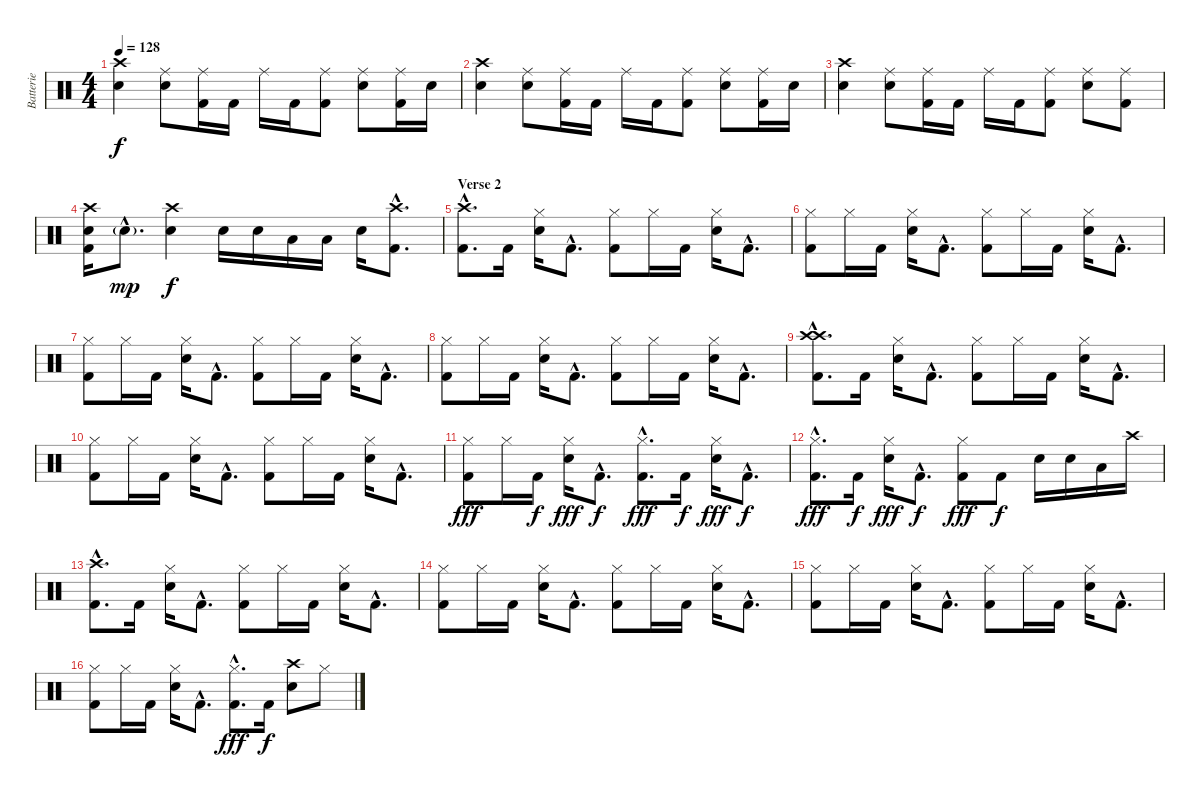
\track ("Batterie" "Batterie") {instrument percussion}
\staff {score}
\articulation defaults
\ts (4 4)
\tempo 128
\clef neutral
\ks c
("Crash high (hit)" "Electric Snare (hit)").4{dy f} ("Ride (middle)" "Electric Snare (hit)").8 ("Ride (middle)" "Kick (hit) 2").16 "Kick (hit) 2".16 "Ride (middle)".16 "Kick (hit) 2".16 ("Ride (middle)" "Kick (hit) 2").8 ("Ride (middle)" "Electric Snare (hit)").8 ("Ride (middle)" "Kick (hit) 2").16 "Electric Snare (hit)".16 |
("Crash high (hit)" "Electric Snare (hit)").4 ("Ride (middle)" "Electric Snare (hit)").8 ("Ride (middle)" "Kick (hit) 2").16 "Kick (hit) 2".16 "Ride (middle)".16 "Kick (hit) 2".16 ("Ride (middle)" "Kick (hit) 2").8 ("Ride (middle)" "Electric Snare (hit)").8 ("Ride (middle)" "Kick (hit) 2").16 "Electric Snare (hit)".16 |
("Crash high (hit)" "Electric Snare (hit)").4 ("Ride (middle)" "Electric Snare (hit)").8 ("Ride (middle)" "Kick (hit) 2").16 "Kick (hit) 2".16 "Ride (middle)".16 "Kick (hit) 2".16 ("Ride (middle)" "Kick (hit) 2").8 ("Ride (middle)" "Electric Snare (hit)").8 ("Ride (middle)" "Kick (hit) 2").8 |
("Crash high (hit)" "Electric Snare (hit)" "Kick (hit) 2").16 "Electric Snare (hit)"{g hac}.8{d dy mp} ("Crash high (hit)" "Electric Snare (hit)").4{dy f} "Electric Snare (hit)".16 "Electric Snare (hit)".16 "Low Tom (hit)".16 "Low Tom (hit)".16 "Electric Snare (hit)".16 ("Crash high (hit)"{hac} "Kick (hit) 2"{hac}).8{d} |
\section ("" "Verse 2")
("Crash high (hit)"{hac} "Kick (hit) 2"{hac}).8{d} "Kick (hit) 2".16 ("Hi-Hat (closed)" "Electric Snare (hit)").16 "Kick (hit) 2"{hac}.8{d} ("Hi-Hat (closed)" "Kick (hit) 2").8 "Hi-Hat (closed)".16 "Kick (hit) 2".16 ("Hi-Hat (closed)" "Electric Snare (hit)").16 "Kick (hit) 2"{hac}.8{d} |
("Hi-Hat (closed)" "Kick (hit) 2").8 "Hi-Hat (closed)".16 "Kick (hit) 2".16 ("Hi-Hat (closed)" "Electric Snare (hit)").16 "Kick (hit) 2"{hac}.8{d} ("Hi-Hat (closed)" "Kick (hit) 2").8 "Hi-Hat (closed)".16 "Kick (hit) 2".16 ("Hi-Hat (closed)" "Electric Snare (hit)").16 "Kick (hit) 2"{hac}.8{d} |
("Hi-Hat (closed)" "Kick (hit) 2").8 "Hi-Hat (closed)".16 "Kick (hit) 2".16 ("Hi-Hat (closed)" "Electric Snare (hit)").16 "Kick (hit) 2"{hac}.8{d} ("Hi-Hat (closed)" "Kick (hit) 2").8 "Hi-Hat (closed)".16 "Kick (hit) 2".16 ("Hi-Hat (closed)" "Electric Snare (hit)").16 "Kick (hit) 2"{hac}.8{d} |
("Hi-Hat (closed)" "Kick (hit) 2").8 "Hi-Hat (closed)".16 "Kick (hit) 2".16 ("Hi-Hat (closed)" "Electric Snare (hit)").16 "Kick (hit) 2"{hac}.8{d} ("Hi-Hat (closed)" "Kick (hit) 2").8 "Hi-Hat (closed)".16 "Kick (hit) 2".16 ("Hi-Hat (closed)" "Electric Snare (hit)").16 "Kick (hit) 2"{hac}.8{d} |
("Crash high (hit)"{hac} "Crash high (hit)"{hac} "Kick (hit) 2"{hac}).8{d} "Kick (hit) 2".16 ("Hi-Hat (closed)" "Electric Snare (hit)").16 "Kick (hit) 2"{hac}.8{d} ("Hi-Hat (closed)" "Kick (hit) 2").8 "Hi-Hat (closed)".16 "Kick (hit) 2".16 ("Hi-Hat (closed)" "Electric Snare (hit)").16 "Kick (hit) 2"{hac}.8{d} |
("Hi-Hat (closed)" "Kick (hit) 2").8 "Hi-Hat (closed)".16 "Kick (hit) 2".16 ("Hi-Hat (closed)" "Electric Snare (hit)").16 "Kick (hit) 2"{hac}.8{d} ("Hi-Hat (closed)" "Kick (hit) 2").8 "Hi-Hat (closed)".16 "Kick (hit) 2".16 ("Hi-Hat (closed)" "Electric Snare (hit)").16 "Kick (hit) 2"{hac}.8{d} |
("Hi-Hat (closed)" "Kick (hit) 2").8{dy fff} "Hi-Hat (closed)".16 "Kick (hit) 2".16{dy f} ("Hi-Hat (closed)" "Electric Snare (hit)").16{dy fff} "Kick (hit) 2"{hac}.8{d dy f} ("Hi-Hat (closed)"{hac} "Kick (hit) 2"{hac}).8{d dy fff} "Kick (hit) 2".16{dy f} ("Hi-Hat (closed)" "Electric Snare (hit)").16{dy fff} "Kick (hit) 2"{hac}.8{d dy f} |
("Hi-Hat (closed)"{hac} "Kick (hit) 2"{hac}).8{d dy fff} "Kick (hit) 2".16{dy f} ("Hi-Hat (closed)" "Electric Snare (hit)").16{dy fff} "Kick (hit) 2"{hac}.8{d dy f} ("Hi-Hat (closed)" "Kick (hit) 2").8{dy fff} "Kick (hit) 2".8{dy f} "Electric Snare (hit)".16 "Electric Snare (hit)".16 "Low Tom (hit)".16 "Crash high (hit)".16 |
("Crash high (hit)"{hac} "Kick (hit) 2"{hac}).8{d} "Kick (hit) 2".16 ("Hi-Hat (closed)" "Electric Snare (hit)").16 "Kick (hit) 2"{hac}.8{d} ("Hi-Hat (closed)" "Kick (hit) 2").8 "Hi-Hat (closed)".16 "Kick (hit) 2".16 ("Hi-Hat (closed)" "Electric Snare (hit)").16 "Kick (hit) 2"{hac}.8{d} |
("Hi-Hat (closed)" "Kick (hit) 2").8 "Hi-Hat (closed)".16 "Kick (hit) 2".16 ("Hi-Hat (closed)" "Electric Snare (hit)").16 "Kick (hit) 2"{hac}.8{d} ("Hi-Hat (closed)" "Kick (hit) 2").8 "Hi-Hat (closed)".16 "Kick (hit) 2".16 ("Hi-Hat (closed)" "Electric Snare (hit)").16 "Kick (hit) 2"{hac}.8{d} |
("Hi-Hat (closed)" "Kick (hit) 2").8 "Hi-Hat (closed)".16 "Kick (hit) 2".16 ("Hi-Hat (closed)" "Electric Snare (hit)").16 "Kick (hit) 2"{hac}.8{d} ("Hi-Hat (closed)" "Kick (hit) 2").8 "Hi-Hat (closed)".16 "Kick (hit) 2".16 ("Hi-Hat (closed)" "Electric Snare (hit)").16 "Kick (hit) 2"{hac}.8{d} |
("Hi-Hat (closed)" "Kick (hit) 2").8 "Hi-Hat (closed)".16 "Kick (hit) 2".16 ("Hi-Hat (closed)" "Electric Snare (hit)").16 "Kick (hit) 2"{hac}.8{d} ("Hi-Hat (closed)"{hac} "Kick (hit) 2"{hac}).8{d dy fff} "Kick (hit) 2".16{dy f} ("Crash high (hit)" "Electric Snare (hit)").8 "Hi-Hat (closed)".8
